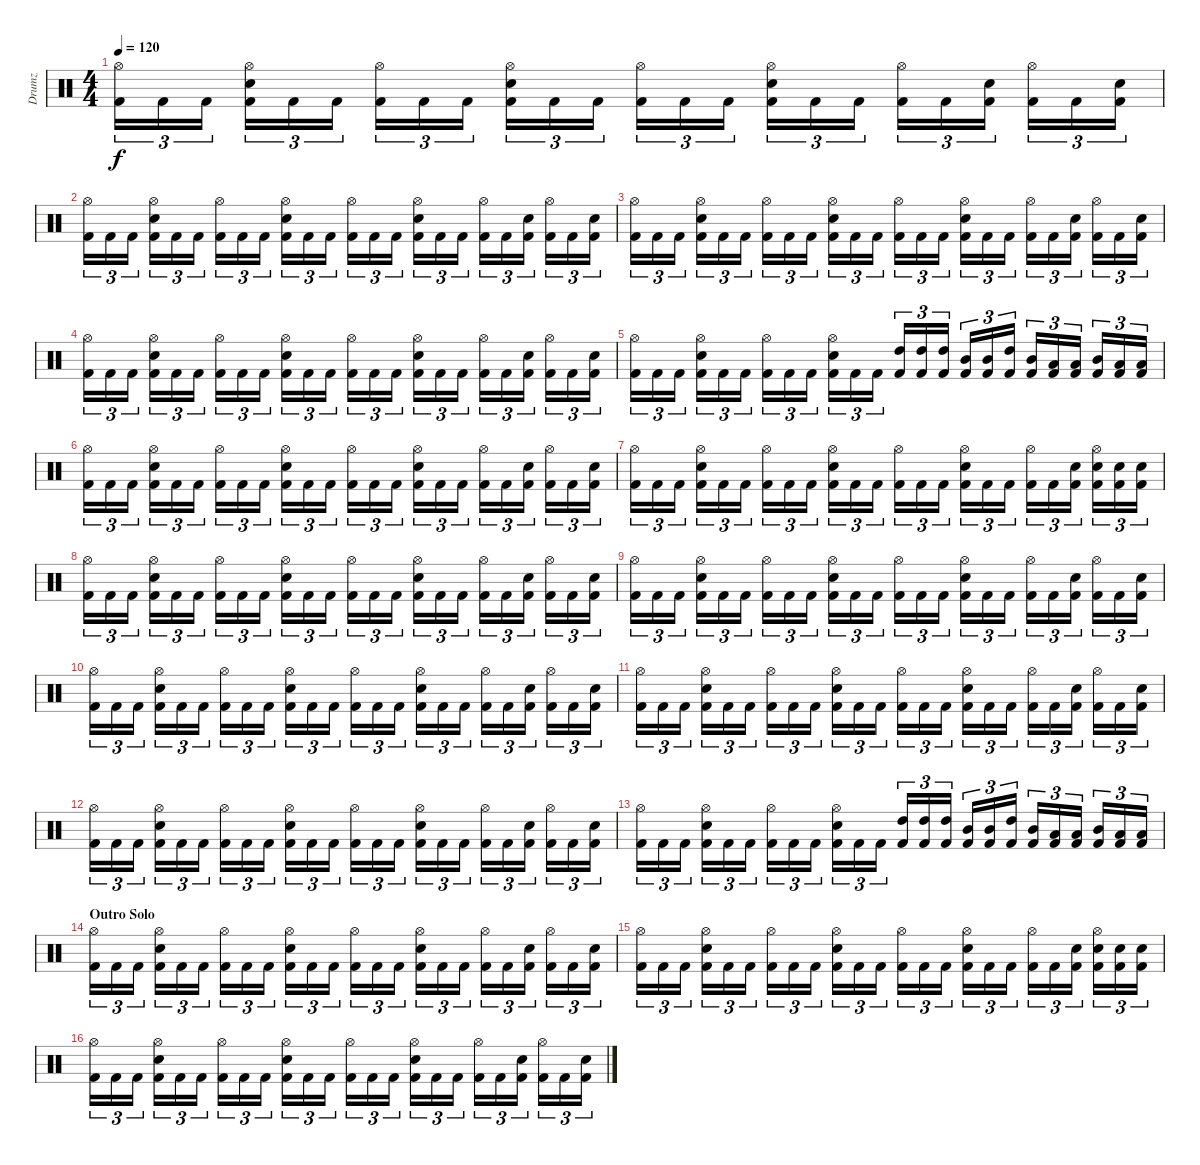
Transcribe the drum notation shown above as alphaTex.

\track ("Drumz" "Drumz") {instrument percussion}
\staff {score}
\articulation defaults
\ts (4 4)
\tempo 120
\clef neutral
\ks c
("Hi-Hat (open)" "Kick (hit) 2").16{tu (3 2) dy f} "Kick (hit) 2".16{tu (3 2)} "Kick (hit) 2".16{tu (3 2)} ("Hi-Hat (open)" "Snare (hit) 2" "Kick (hit) 2").16{tu (3 2)} "Kick (hit) 2".16{tu (3 2)} "Kick (hit) 2".16{tu (3 2)} ("Hi-Hat (open)" "Kick (hit) 2").16{tu (3 2)} "Kick (hit) 2".16{tu (3 2)} "Kick (hit) 2".16{tu (3 2)} ("Hi-Hat (open)" "Snare (hit) 2" "Kick (hit) 2").16{tu (3 2)} "Kick (hit) 2".16{tu (3 2)} "Kick (hit) 2".16{tu (3 2)} ("Hi-Hat (open)" "Kick (hit) 2").16{tu (3 2)} "Kick (hit) 2".16{tu (3 2)} "Kick (hit) 2".16{tu (3 2)} ("Hi-Hat (open)" "Snare (hit) 2" "Kick (hit) 2").16{tu (3 2)} "Kick (hit) 2".16{tu (3 2)} "Kick (hit) 2".16{tu (3 2)} ("Hi-Hat (open)" "Kick (hit) 2").16{tu (3 2)} "Kick (hit) 2".16{tu (3 2)} ("Snare (hit) 2" "Kick (hit) 2").16{tu (3 2)} ("Hi-Hat (open)" "Kick (hit) 2").16{tu (3 2)} "Kick (hit) 2".16{tu (3 2)} ("Snare (hit) 2" "Kick (hit) 2").16{tu (3 2)} |
("Hi-Hat (open)" "Kick (hit) 2").16{tu (3 2)} "Kick (hit) 2".16{tu (3 2)} "Kick (hit) 2".16{tu (3 2)} ("Hi-Hat (open)" "Snare (hit) 2" "Kick (hit) 2").16{tu (3 2)} "Kick (hit) 2".16{tu (3 2)} "Kick (hit) 2".16{tu (3 2)} ("Hi-Hat (open)" "Kick (hit) 2").16{tu (3 2)} "Kick (hit) 2".16{tu (3 2)} "Kick (hit) 2".16{tu (3 2)} ("Hi-Hat (open)" "Snare (hit) 2" "Kick (hit) 2").16{tu (3 2)} "Kick (hit) 2".16{tu (3 2)} "Kick (hit) 2".16{tu (3 2)} ("Hi-Hat (open)" "Kick (hit) 2").16{tu (3 2)} "Kick (hit) 2".16{tu (3 2)} "Kick (hit) 2".16{tu (3 2)} ("Hi-Hat (open)" "Snare (hit) 2" "Kick (hit) 2").16{tu (3 2)} "Kick (hit) 2".16{tu (3 2)} "Kick (hit) 2".16{tu (3 2)} ("Hi-Hat (open)" "Kick (hit) 2").16{tu (3 2)} "Kick (hit) 2".16{tu (3 2)} ("Snare (hit) 2" "Kick (hit) 2").16{tu (3 2)} ("Hi-Hat (open)" "Kick (hit) 2").16{tu (3 2)} "Kick (hit) 2".16{tu (3 2)} ("Snare (hit) 2" "Kick (hit) 2").16{tu (3 2)} |
("Hi-Hat (open)" "Kick (hit) 2").16{tu (3 2)} "Kick (hit) 2".16{tu (3 2)} "Kick (hit) 2".16{tu (3 2)} ("Hi-Hat (open)" "Snare (hit) 2" "Kick (hit) 2").16{tu (3 2)} "Kick (hit) 2".16{tu (3 2)} "Kick (hit) 2".16{tu (3 2)} ("Hi-Hat (open)" "Kick (hit) 2").16{tu (3 2)} "Kick (hit) 2".16{tu (3 2)} "Kick (hit) 2".16{tu (3 2)} ("Hi-Hat (open)" "Snare (hit) 2" "Kick (hit) 2").16{tu (3 2)} "Kick (hit) 2".16{tu (3 2)} "Kick (hit) 2".16{tu (3 2)} ("Hi-Hat (open)" "Kick (hit) 2").16{tu (3 2)} "Kick (hit) 2".16{tu (3 2)} "Kick (hit) 2".16{tu (3 2)} ("Hi-Hat (open)" "Snare (hit) 2" "Kick (hit) 2").16{tu (3 2)} "Kick (hit) 2".16{tu (3 2)} "Kick (hit) 2".16{tu (3 2)} ("Hi-Hat (open)" "Kick (hit) 2").16{tu (3 2)} "Kick (hit) 2".16{tu (3 2)} ("Snare (hit) 2" "Kick (hit) 2").16{tu (3 2)} ("Hi-Hat (open)" "Kick (hit) 2").16{tu (3 2)} "Kick (hit) 2".16{tu (3 2)} ("Snare (hit) 2" "Kick (hit) 2").16{tu (3 2)} |
("Hi-Hat (open)" "Kick (hit) 2").16{tu (3 2)} "Kick (hit) 2".16{tu (3 2)} "Kick (hit) 2".16{tu (3 2)} ("Hi-Hat (open)" "Snare (hit) 2" "Kick (hit) 2").16{tu (3 2)} "Kick (hit) 2".16{tu (3 2)} "Kick (hit) 2".16{tu (3 2)} ("Hi-Hat (open)" "Kick (hit) 2").16{tu (3 2)} "Kick (hit) 2".16{tu (3 2)} "Kick (hit) 2".16{tu (3 2)} ("Hi-Hat (open)" "Snare (hit) 2" "Kick (hit) 2").16{tu (3 2)} "Kick (hit) 2".16{tu (3 2)} "Kick (hit) 2".16{tu (3 2)} ("Hi-Hat (open)" "Kick (hit) 2").16{tu (3 2)} "Kick (hit) 2".16{tu (3 2)} "Kick (hit) 2".16{tu (3 2)} ("Hi-Hat (open)" "Snare (hit) 2" "Kick (hit) 2").16{tu (3 2)} "Kick (hit) 2".16{tu (3 2)} "Kick (hit) 2".16{tu (3 2)} ("Hi-Hat (open)" "Kick (hit) 2").16{tu (3 2)} "Kick (hit) 2".16{tu (3 2)} ("Snare (hit) 2" "Kick (hit) 2").16{tu (3 2)} ("Hi-Hat (open)" "Kick (hit) 2").16{tu (3 2)} "Kick (hit) 2".16{tu (3 2)} ("Snare (hit) 2" "Kick (hit) 2").16{tu (3 2)} |
("Hi-Hat (open)" "Kick (hit) 2").16{tu (3 2)} "Kick (hit) 2".16{tu (3 2)} "Kick (hit) 2".16{tu (3 2)} ("Hi-Hat (open)" "Snare (hit) 2" "Kick (hit) 2").16{tu (3 2)} "Kick (hit) 2".16{tu (3 2)} "Kick (hit) 2".16{tu (3 2)} ("Hi-Hat (open)" "Kick (hit) 2").16{tu (3 2)} "Kick (hit) 2".16{tu (3 2)} "Kick (hit) 2".16{tu (3 2)} ("Hi-Hat (open)" "Snare (hit) 2" "Kick (hit) 2").16{tu (3 2)} "Kick (hit) 2".16{tu (3 2)} "Kick (hit) 2".16{tu (3 2)} ("High Tom (hit)" "Kick (hit) 2").16{tu (3 2)} ("High Tom (hit)" "Kick (hit) 2").16{tu (3 2)} ("High Tom (hit)" "Kick (hit) 2").16{tu (3 2)} ("Mid Tom (hit)" "Kick (hit) 2").16{tu (3 2)} ("Mid Tom (hit)" "Kick (hit) 2").16{tu (3 2)} ("High Tom (hit)" "Kick (hit) 2").16{tu (3 2)} ("Mid Tom (hit)" "Kick (hit) 2").16{tu (3 2)} ("Low Tom (hit)" "Kick (hit) 2").16{tu (3 2)} ("Low Tom (hit)" "Kick (hit) 2").16{tu (3 2)} ("Mid Tom (hit)" "Kick (hit) 2").16{tu (3 2)} ("Low Tom (hit)" "Kick (hit) 2").16{tu (3 2)} ("Low Tom (hit)" "Kick (hit) 2").16{tu (3 2)} |
("Hi-Hat (open)" "Kick (hit) 2").16{tu (3 2)} "Kick (hit) 2".16{tu (3 2)} "Kick (hit) 2".16{tu (3 2)} ("Hi-Hat (open)" "Snare (hit) 2" "Kick (hit) 2").16{tu (3 2)} "Kick (hit) 2".16{tu (3 2)} "Kick (hit) 2".16{tu (3 2)} ("Hi-Hat (open)" "Kick (hit) 2").16{tu (3 2)} "Kick (hit) 2".16{tu (3 2)} "Kick (hit) 2".16{tu (3 2)} ("Hi-Hat (open)" "Snare (hit) 2" "Kick (hit) 2").16{tu (3 2)} "Kick (hit) 2".16{tu (3 2)} "Kick (hit) 2".16{tu (3 2)} ("Hi-Hat (open)" "Kick (hit) 2").16{tu (3 2)} "Kick (hit) 2".16{tu (3 2)} "Kick (hit) 2".16{tu (3 2)} ("Hi-Hat (open)" "Snare (hit) 2" "Kick (hit) 2").16{tu (3 2)} "Kick (hit) 2".16{tu (3 2)} "Kick (hit) 2".16{tu (3 2)} ("Hi-Hat (open)" "Kick (hit) 2").16{tu (3 2)} "Kick (hit) 2".16{tu (3 2)} ("Snare (hit) 2" "Kick (hit) 2").16{tu (3 2)} ("Hi-Hat (open)" "Kick (hit) 2").16{tu (3 2)} "Kick (hit) 2".16{tu (3 2)} ("Snare (hit) 2" "Kick (hit) 2").16{tu (3 2)} |
("Hi-Hat (open)" "Kick (hit) 2").16{tu (3 2)} "Kick (hit) 2".16{tu (3 2)} "Kick (hit) 2".16{tu (3 2)} ("Hi-Hat (open)" "Snare (hit) 2" "Kick (hit) 2").16{tu (3 2)} "Kick (hit) 2".16{tu (3 2)} "Kick (hit) 2".16{tu (3 2)} ("Hi-Hat (open)" "Kick (hit) 2").16{tu (3 2)} "Kick (hit) 2".16{tu (3 2)} "Kick (hit) 2".16{tu (3 2)} ("Hi-Hat (open)" "Snare (hit) 2" "Kick (hit) 2").16{tu (3 2)} "Kick (hit) 2".16{tu (3 2)} "Kick (hit) 2".16{tu (3 2)} ("Hi-Hat (open)" "Kick (hit) 2").16{tu (3 2)} "Kick (hit) 2".16{tu (3 2)} "Kick (hit) 2".16{tu (3 2)} ("Hi-Hat (open)" "Snare (hit) 2" "Kick (hit) 2").16{tu (3 2)} "Kick (hit) 2".16{tu (3 2)} "Kick (hit) 2".16{tu (3 2)} ("Hi-Hat (open)" "Kick (hit) 2").16{tu (3 2)} "Kick (hit) 2".16{tu (3 2)} ("Snare (hit) 2" "Kick (hit) 2").16{tu (3 2)} ("Hi-Hat (open)" "Snare (hit) 2" "Kick (hit) 2").16{tu (3 2)} ("Snare (hit) 2" "Kick (hit) 2").16{tu (3 2)} ("Snare (hit) 2" "Kick (hit) 2").16{tu (3 2)} |
("Hi-Hat (open)" "Kick (hit) 2").16{tu (3 2)} "Kick (hit) 2".16{tu (3 2)} "Kick (hit) 2".16{tu (3 2)} ("Hi-Hat (open)" "Snare (hit) 2" "Kick (hit) 2").16{tu (3 2)} "Kick (hit) 2".16{tu (3 2)} "Kick (hit) 2".16{tu (3 2)} ("Hi-Hat (open)" "Kick (hit) 2").16{tu (3 2)} "Kick (hit) 2".16{tu (3 2)} "Kick (hit) 2".16{tu (3 2)} ("Hi-Hat (open)" "Snare (hit) 2" "Kick (hit) 2").16{tu (3 2)} "Kick (hit) 2".16{tu (3 2)} "Kick (hit) 2".16{tu (3 2)} ("Hi-Hat (open)" "Kick (hit) 2").16{tu (3 2)} "Kick (hit) 2".16{tu (3 2)} "Kick (hit) 2".16{tu (3 2)} ("Hi-Hat (open)" "Snare (hit) 2" "Kick (hit) 2").16{tu (3 2)} "Kick (hit) 2".16{tu (3 2)} "Kick (hit) 2".16{tu (3 2)} ("Hi-Hat (open)" "Kick (hit) 2").16{tu (3 2)} "Kick (hit) 2".16{tu (3 2)} ("Snare (hit) 2" "Kick (hit) 2").16{tu (3 2)} ("Hi-Hat (open)" "Kick (hit) 2").16{tu (3 2)} "Kick (hit) 2".16{tu (3 2)} ("Snare (hit) 2" "Kick (hit) 2").16{tu (3 2)} |
("Hi-Hat (open)" "Kick (hit) 2").16{tu (3 2)} "Kick (hit) 2".16{tu (3 2)} "Kick (hit) 2".16{tu (3 2)} ("Hi-Hat (open)" "Snare (hit) 2" "Kick (hit) 2").16{tu (3 2)} "Kick (hit) 2".16{tu (3 2)} "Kick (hit) 2".16{tu (3 2)} ("Hi-Hat (open)" "Kick (hit) 2").16{tu (3 2)} "Kick (hit) 2".16{tu (3 2)} "Kick (hit) 2".16{tu (3 2)} ("Hi-Hat (open)" "Snare (hit) 2" "Kick (hit) 2").16{tu (3 2)} "Kick (hit) 2".16{tu (3 2)} "Kick (hit) 2".16{tu (3 2)} ("Hi-Hat (open)" "Kick (hit) 2").16{tu (3 2)} "Kick (hit) 2".16{tu (3 2)} "Kick (hit) 2".16{tu (3 2)} ("Hi-Hat (open)" "Snare (hit) 2" "Kick (hit) 2").16{tu (3 2)} "Kick (hit) 2".16{tu (3 2)} "Kick (hit) 2".16{tu (3 2)} ("Hi-Hat (open)" "Kick (hit) 2").16{tu (3 2)} "Kick (hit) 2".16{tu (3 2)} ("Snare (hit) 2" "Kick (hit) 2").16{tu (3 2)} ("Hi-Hat (open)" "Kick (hit) 2").16{tu (3 2)} "Kick (hit) 2".16{tu (3 2)} ("Snare (hit) 2" "Kick (hit) 2").16{tu (3 2)} |
("Hi-Hat (open)" "Kick (hit) 2").16{tu (3 2)} "Kick (hit) 2".16{tu (3 2)} "Kick (hit) 2".16{tu (3 2)} ("Hi-Hat (open)" "Snare (hit) 2" "Kick (hit) 2").16{tu (3 2)} "Kick (hit) 2".16{tu (3 2)} "Kick (hit) 2".16{tu (3 2)} ("Hi-Hat (open)" "Kick (hit) 2").16{tu (3 2)} "Kick (hit) 2".16{tu (3 2)} "Kick (hit) 2".16{tu (3 2)} ("Hi-Hat (open)" "Snare (hit) 2" "Kick (hit) 2").16{tu (3 2)} "Kick (hit) 2".16{tu (3 2)} "Kick (hit) 2".16{tu (3 2)} ("Hi-Hat (open)" "Kick (hit) 2").16{tu (3 2)} "Kick (hit) 2".16{tu (3 2)} "Kick (hit) 2".16{tu (3 2)} ("Hi-Hat (open)" "Snare (hit) 2" "Kick (hit) 2").16{tu (3 2)} "Kick (hit) 2".16{tu (3 2)} "Kick (hit) 2".16{tu (3 2)} ("Hi-Hat (open)" "Kick (hit) 2").16{tu (3 2)} "Kick (hit) 2".16{tu (3 2)} ("Snare (hit) 2" "Kick (hit) 2").16{tu (3 2)} ("Hi-Hat (open)" "Kick (hit) 2").16{tu (3 2)} "Kick (hit) 2".16{tu (3 2)} ("Snare (hit) 2" "Kick (hit) 2").16{tu (3 2)} |
("Hi-Hat (open)" "Kick (hit) 2").16{tu (3 2)} "Kick (hit) 2".16{tu (3 2)} "Kick (hit) 2".16{tu (3 2)} ("Hi-Hat (open)" "Snare (hit) 2" "Kick (hit) 2").16{tu (3 2)} "Kick (hit) 2".16{tu (3 2)} "Kick (hit) 2".16{tu (3 2)} ("Hi-Hat (open)" "Kick (hit) 2").16{tu (3 2)} "Kick (hit) 2".16{tu (3 2)} "Kick (hit) 2".16{tu (3 2)} ("Hi-Hat (open)" "Snare (hit) 2" "Kick (hit) 2").16{tu (3 2)} "Kick (hit) 2".16{tu (3 2)} "Kick (hit) 2".16{tu (3 2)} ("Hi-Hat (open)" "Kick (hit) 2").16{tu (3 2)} "Kick (hit) 2".16{tu (3 2)} "Kick (hit) 2".16{tu (3 2)} ("Hi-Hat (open)" "Snare (hit) 2" "Kick (hit) 2").16{tu (3 2)} "Kick (hit) 2".16{tu (3 2)} "Kick (hit) 2".16{tu (3 2)} ("Hi-Hat (open)" "Kick (hit) 2").16{tu (3 2)} "Kick (hit) 2".16{tu (3 2)} ("Snare (hit) 2" "Kick (hit) 2").16{tu (3 2)} ("Hi-Hat (open)" "Kick (hit) 2").16{tu (3 2)} "Kick (hit) 2".16{tu (3 2)} ("Snare (hit) 2" "Kick (hit) 2").16{tu (3 2)} |
("Hi-Hat (open)" "Kick (hit) 2").16{tu (3 2)} "Kick (hit) 2".16{tu (3 2)} "Kick (hit) 2".16{tu (3 2)} ("Hi-Hat (open)" "Snare (hit) 2" "Kick (hit) 2").16{tu (3 2)} "Kick (hit) 2".16{tu (3 2)} "Kick (hit) 2".16{tu (3 2)} ("Hi-Hat (open)" "Kick (hit) 2").16{tu (3 2)} "Kick (hit) 2".16{tu (3 2)} "Kick (hit) 2".16{tu (3 2)} ("Hi-Hat (open)" "Snare (hit) 2" "Kick (hit) 2").16{tu (3 2)} "Kick (hit) 2".16{tu (3 2)} "Kick (hit) 2".16{tu (3 2)} ("Hi-Hat (open)" "Kick (hit) 2").16{tu (3 2)} "Kick (hit) 2".16{tu (3 2)} "Kick (hit) 2".16{tu (3 2)} ("Hi-Hat (open)" "Snare (hit) 2" "Kick (hit) 2").16{tu (3 2)} "Kick (hit) 2".16{tu (3 2)} "Kick (hit) 2".16{tu (3 2)} ("Hi-Hat (open)" "Kick (hit) 2").16{tu (3 2)} "Kick (hit) 2".16{tu (3 2)} ("Snare (hit) 2" "Kick (hit) 2").16{tu (3 2)} ("Hi-Hat (open)" "Kick (hit) 2").16{tu (3 2)} "Kick (hit) 2".16{tu (3 2)} ("Snare (hit) 2" "Kick (hit) 2").16{tu (3 2)} |
("Hi-Hat (open)" "Kick (hit) 2").16{tu (3 2)} "Kick (hit) 2".16{tu (3 2)} "Kick (hit) 2".16{tu (3 2)} ("Hi-Hat (open)" "Snare (hit) 2" "Kick (hit) 2").16{tu (3 2)} "Kick (hit) 2".16{tu (3 2)} "Kick (hit) 2".16{tu (3 2)} ("Hi-Hat (open)" "Kick (hit) 2").16{tu (3 2)} "Kick (hit) 2".16{tu (3 2)} "Kick (hit) 2".16{tu (3 2)} ("Hi-Hat (open)" "Snare (hit) 2" "Kick (hit) 2").16{tu (3 2)} "Kick (hit) 2".16{tu (3 2)} "Kick (hit) 2".16{tu (3 2)} ("High Tom (hit)" "Kick (hit) 2").16{tu (3 2)} ("High Tom (hit)" "Kick (hit) 2").16{tu (3 2)} ("High Tom (hit)" "Kick (hit) 2").16{tu (3 2)} ("Mid Tom (hit)" "Kick (hit) 2").16{tu (3 2)} ("Mid Tom (hit)" "Kick (hit) 2").16{tu (3 2)} ("High Tom (hit)" "Kick (hit) 2").16{tu (3 2)} ("Mid Tom (hit)" "Kick (hit) 2").16{tu (3 2)} ("Low Tom (hit)" "Kick (hit) 2").16{tu (3 2)} ("Low Tom (hit)" "Kick (hit) 2").16{tu (3 2)} ("Mid Tom (hit)" "Kick (hit) 2").16{tu (3 2)} ("Low Tom (hit)" "Kick (hit) 2").16{tu (3 2)} ("Low Tom (hit)" "Kick (hit) 2").16{tu (3 2)} |
\section ("" "Outro Solo")
("Hi-Hat (open)" "Kick (hit) 2").16{tu (3 2)} "Kick (hit) 2".16{tu (3 2)} "Kick (hit) 2".16{tu (3 2)} ("Hi-Hat (open)" "Snare (hit) 2" "Kick (hit) 2").16{tu (3 2)} "Kick (hit) 2".16{tu (3 2)} "Kick (hit) 2".16{tu (3 2)} ("Hi-Hat (open)" "Kick (hit) 2").16{tu (3 2)} "Kick (hit) 2".16{tu (3 2)} "Kick (hit) 2".16{tu (3 2)} ("Hi-Hat (open)" "Snare (hit) 2" "Kick (hit) 2").16{tu (3 2)} "Kick (hit) 2".16{tu (3 2)} "Kick (hit) 2".16{tu (3 2)} ("Hi-Hat (open)" "Kick (hit) 2").16{tu (3 2)} "Kick (hit) 2".16{tu (3 2)} "Kick (hit) 2".16{tu (3 2)} ("Hi-Hat (open)" "Snare (hit) 2" "Kick (hit) 2").16{tu (3 2)} "Kick (hit) 2".16{tu (3 2)} "Kick (hit) 2".16{tu (3 2)} ("Hi-Hat (open)" "Kick (hit) 2").16{tu (3 2)} "Kick (hit) 2".16{tu (3 2)} ("Snare (hit) 2" "Kick (hit) 2").16{tu (3 2)} ("Hi-Hat (open)" "Kick (hit) 2").16{tu (3 2)} "Kick (hit) 2".16{tu (3 2)} ("Snare (hit) 2" "Kick (hit) 2").16{tu (3 2)} |
("Hi-Hat (open)" "Kick (hit) 2").16{tu (3 2)} "Kick (hit) 2".16{tu (3 2)} "Kick (hit) 2".16{tu (3 2)} ("Hi-Hat (open)" "Snare (hit) 2" "Kick (hit) 2").16{tu (3 2)} "Kick (hit) 2".16{tu (3 2)} "Kick (hit) 2".16{tu (3 2)} ("Hi-Hat (open)" "Kick (hit) 2").16{tu (3 2)} "Kick (hit) 2".16{tu (3 2)} "Kick (hit) 2".16{tu (3 2)} ("Hi-Hat (open)" "Snare (hit) 2" "Kick (hit) 2").16{tu (3 2)} "Kick (hit) 2".16{tu (3 2)} "Kick (hit) 2".16{tu (3 2)} ("Hi-Hat (open)" "Kick (hit) 2").16{tu (3 2)} "Kick (hit) 2".16{tu (3 2)} "Kick (hit) 2".16{tu (3 2)} ("Hi-Hat (open)" "Snare (hit) 2" "Kick (hit) 2").16{tu (3 2)} "Kick (hit) 2".16{tu (3 2)} "Kick (hit) 2".16{tu (3 2)} ("Hi-Hat (open)" "Kick (hit) 2").16{tu (3 2)} "Kick (hit) 2".16{tu (3 2)} ("Snare (hit) 2" "Kick (hit) 2").16{tu (3 2)} ("Hi-Hat (open)" "Snare (hit) 2" "Kick (hit) 2").16{tu (3 2)} ("Snare (hit) 2" "Kick (hit) 2").16{tu (3 2)} ("Snare (hit) 2" "Kick (hit) 2").16{tu (3 2)} |
("Hi-Hat (open)" "Kick (hit) 2").16{tu (3 2)} "Kick (hit) 2".16{tu (3 2)} "Kick (hit) 2".16{tu (3 2)} ("Hi-Hat (open)" "Snare (hit) 2" "Kick (hit) 2").16{tu (3 2)} "Kick (hit) 2".16{tu (3 2)} "Kick (hit) 2".16{tu (3 2)} ("Hi-Hat (open)" "Kick (hit) 2").16{tu (3 2)} "Kick (hit) 2".16{tu (3 2)} "Kick (hit) 2".16{tu (3 2)} ("Hi-Hat (open)" "Snare (hit) 2" "Kick (hit) 2").16{tu (3 2)} "Kick (hit) 2".16{tu (3 2)} "Kick (hit) 2".16{tu (3 2)} ("Hi-Hat (open)" "Kick (hit) 2").16{tu (3 2)} "Kick (hit) 2".16{tu (3 2)} "Kick (hit) 2".16{tu (3 2)} ("Hi-Hat (open)" "Snare (hit) 2" "Kick (hit) 2").16{tu (3 2)} "Kick (hit) 2".16{tu (3 2)} "Kick (hit) 2".16{tu (3 2)} ("Hi-Hat (open)" "Kick (hit) 2").16{tu (3 2)} "Kick (hit) 2".16{tu (3 2)} ("Snare (hit) 2" "Kick (hit) 2").16{tu (3 2)} ("Hi-Hat (open)" "Kick (hit) 2").16{tu (3 2)} "Kick (hit) 2".16{tu (3 2)} ("Snare (hit) 2" "Kick (hit) 2").16{tu (3 2)}
